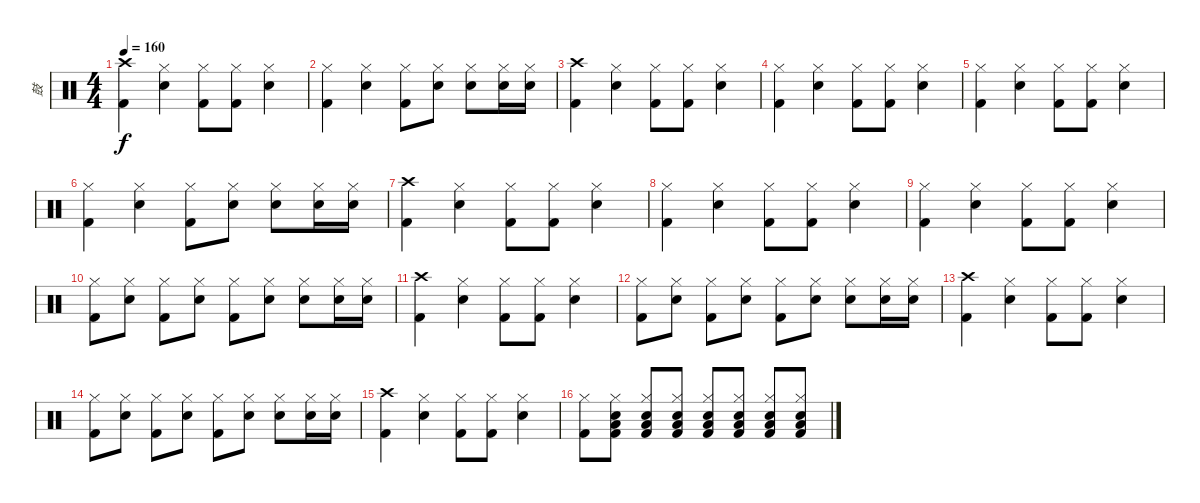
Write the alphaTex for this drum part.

\track ("鼓" "鼓") {instrument percussion}
\staff {score}
\articulation defaults
\ts (4 4)
\tempo 160
\clef neutral
\ks c
("Crash high (hit)" "Kick (hit) 2").4{dy f} ("Hi-Hat (closed)" "Snare (hit) 2").4 ("Hi-Hat (closed)" "Kick (hit) 2").8 ("Hi-Hat (closed)" "Kick (hit) 2").8 ("Hi-Hat (closed)" "Snare (hit) 2").4 |
("Hi-Hat (closed)" "Kick (hit) 2").4 ("Hi-Hat (closed)" "Snare (hit) 2").4 ("Hi-Hat (closed)" "Kick (hit) 2").8 ("Hi-Hat (closed)" "Snare (hit) 2").8 ("Hi-Hat (closed)" "Snare (hit) 2").8 ("Hi-Hat (closed)" "Snare (hit) 2").16 ("Hi-Hat (closed)" "Snare (hit) 2").16 |
("Crash high (hit)" "Kick (hit) 2").4 ("Hi-Hat (closed)" "Snare (hit) 2").4 ("Hi-Hat (closed)" "Kick (hit) 2").8 ("Hi-Hat (closed)" "Kick (hit) 2").8 ("Hi-Hat (closed)" "Snare (hit) 2").4 |
("Hi-Hat (closed)" "Kick (hit) 2").4 ("Hi-Hat (closed)" "Snare (hit) 2").4 ("Hi-Hat (closed)" "Kick (hit) 2").8 ("Hi-Hat (closed)" "Kick (hit) 2").8 ("Hi-Hat (closed)" "Snare (hit) 2").4 |
("Hi-Hat (closed)" "Kick (hit) 2").4 ("Hi-Hat (closed)" "Snare (hit) 2").4 ("Hi-Hat (closed)" "Kick (hit) 2").8 ("Hi-Hat (closed)" "Kick (hit) 2").8 ("Hi-Hat (closed)" "Snare (hit) 2").4 |
("Hi-Hat (closed)" "Kick (hit) 2").4 ("Hi-Hat (closed)" "Snare (hit) 2").4 ("Hi-Hat (closed)" "Kick (hit) 2").8 ("Hi-Hat (closed)" "Snare (hit) 2").8 ("Hi-Hat (closed)" "Snare (hit) 2").8 ("Hi-Hat (closed)" "Snare (hit) 2").16 ("Hi-Hat (closed)" "Snare (hit) 2").16 |
("Crash high (hit)" "Kick (hit) 2").4 ("Hi-Hat (closed)" "Snare (hit) 2").4 ("Hi-Hat (closed)" "Kick (hit) 2").8 ("Hi-Hat (closed)" "Kick (hit) 2").8 ("Hi-Hat (closed)" "Snare (hit) 2").4 |
("Hi-Hat (closed)" "Kick (hit) 2").4 ("Hi-Hat (closed)" "Snare (hit) 2").4 ("Hi-Hat (closed)" "Kick (hit) 2").8 ("Hi-Hat (closed)" "Kick (hit) 2").8 ("Hi-Hat (closed)" "Snare (hit) 2").4 |
("Hi-Hat (closed)" "Kick (hit) 2").4 ("Hi-Hat (closed)" "Snare (hit) 2").4 ("Hi-Hat (closed)" "Kick (hit) 2").8 ("Hi-Hat (closed)" "Kick (hit) 2").8 ("Hi-Hat (closed)" "Snare (hit) 2").4 |
("Hi-Hat (closed)" "Kick (hit) 2").8 ("Hi-Hat (closed)" "Snare (hit) 2").8 ("Hi-Hat (closed)" "Kick (hit) 2").8 ("Hi-Hat (closed)" "Snare (hit) 2").8 ("Hi-Hat (closed)" "Kick (hit) 2").8 ("Hi-Hat (closed)" "Snare (hit) 2").8 ("Hi-Hat (closed)" "Snare (hit) 2").8 ("Hi-Hat (closed)" "Snare (hit) 2").16 ("Hi-Hat (closed)" "Snare (hit) 2").16 |
("Crash high (hit)" "Kick (hit) 2").4 ("Hi-Hat (closed)" "Snare (hit) 2").4 ("Hi-Hat (closed)" "Kick (hit) 2").8 ("Hi-Hat (closed)" "Kick (hit) 2").8 ("Hi-Hat (closed)" "Snare (hit) 2").4 |
("Hi-Hat (closed)" "Kick (hit) 2").8 ("Hi-Hat (closed)" "Snare (hit) 2").8 ("Hi-Hat (closed)" "Kick (hit) 2").8 ("Hi-Hat (closed)" "Snare (hit) 2").8 ("Hi-Hat (closed)" "Kick (hit) 2").8 ("Hi-Hat (closed)" "Snare (hit) 2").8 ("Hi-Hat (closed)" "Snare (hit) 2").8 ("Hi-Hat (closed)" "Snare (hit) 2").16 ("Hi-Hat (closed)" "Snare (hit) 2").16 |
("Crash high (hit)" "Kick (hit) 2").4 ("Hi-Hat (closed)" "Snare (hit) 2").4 ("Hi-Hat (closed)" "Kick (hit) 2").8 ("Hi-Hat (closed)" "Kick (hit) 2").8 ("Hi-Hat (closed)" "Snare (hit) 2").4 |
("Hi-Hat (closed)" "Kick (hit) 2").8 ("Hi-Hat (closed)" "Snare (hit) 2").8 ("Hi-Hat (closed)" "Kick (hit) 2").8 ("Hi-Hat (closed)" "Snare (hit) 2").8 ("Hi-Hat (closed)" "Kick (hit) 2").8 ("Hi-Hat (closed)" "Snare (hit) 2").8 ("Hi-Hat (closed)" "Snare (hit) 2").8 ("Hi-Hat (closed)" "Snare (hit) 2").16 ("Hi-Hat (closed)" "Snare (hit) 2").16 |
("Crash high (hit)" "Kick (hit) 2").4 ("Hi-Hat (closed)" "Snare (hit) 2").4 ("Hi-Hat (closed)" "Kick (hit) 2").8 ("Hi-Hat (closed)" "Kick (hit) 2").8 ("Hi-Hat (closed)" "Snare (hit) 2").4 |
("Hi-Hat (closed)" "Kick (hit) 2").8 ("Hi-Hat (closed)" "Snare (hit) 2" "Low Floor Tom (hit)" "Kick (hit) 2").8 ("Hi-Hat (closed)" "Snare (hit) 2" "Low Floor Tom (hit)" "Kick (hit) 2").8 ("Hi-Hat (closed)" "Snare (hit) 2" "Low Floor Tom (hit)" "Kick (hit) 2").8 ("Hi-Hat (closed)" "Snare (hit) 2" "Low Floor Tom (hit)" "Kick (hit) 2").8 ("Hi-Hat (closed)" "Snare (hit) 2" "Low Floor Tom (hit)" "Kick (hit) 2").8 ("Hi-Hat (closed)" "Snare (hit) 2" "Low Floor Tom (hit)" "Kick (hit) 2").8 ("Hi-Hat (closed)" "Snare (hit) 2" "Low Floor Tom (hit)" "Kick (hit) 2").8
